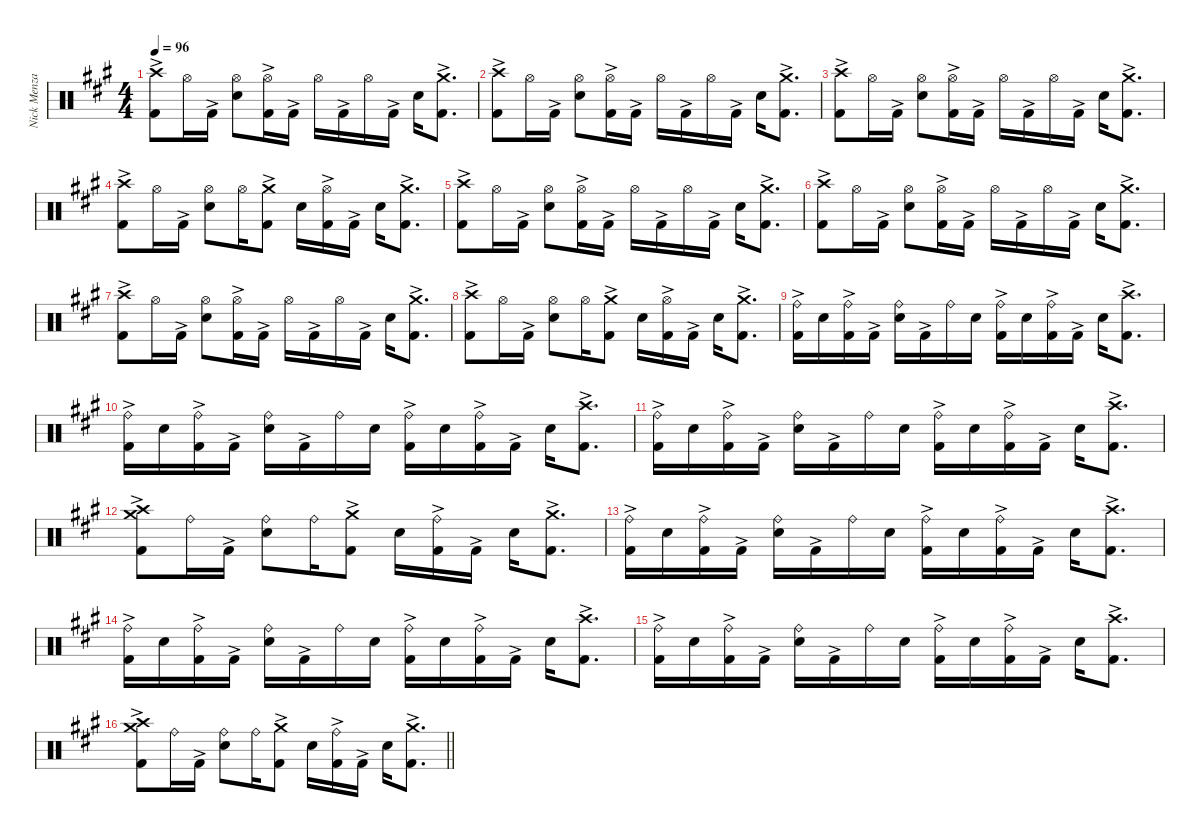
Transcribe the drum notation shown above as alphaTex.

\defaultSystemsLayout 4
\hideDynamics
\bracketExtendMode nobrackets
\firstSystemTrackNameMode fullname
\otherSystemsTrackNameOrientation horizontal
\track ("Nick Menza" "drm.") {instrument percussion}
\staff {score}
\articulation defaults
\ts (4 4)
\tempo 96
\clef neutral
\ks f#minor
("Crash high (hit)"{acc forcenatural} "Kick (hit) 2"{ac acc forcenatural}).8{dy f beam Down} "Hi-Hat (open)"{acc forcenatural}.16{beam Down} "Kick (hit) 2"{ac acc forcenatural}.16{dy ff beam Down} ("Hi-Hat (open)"{acc forcenatural} "Snare (hit) 2"{acc forcenatural}).8{dy f beam Down} ("Hi-Hat (open)"{acc forcenatural} "Kick (hit) 2"{ac acc forcenatural}).16{beam Down} "Kick (hit) 2"{ac acc forcenatural}.16{dy ff beam Down} "Hi-Hat (open)"{acc forcenatural}.16{dy f beam Down} "Kick (hit) 2"{ac acc forcenatural}.16{dy ff beam Down} "Hi-Hat (open)"{acc forcenatural}.16{dy f beam Down} "Kick (hit) 2"{ac acc forcenatural}.16{dy ff beam Down} "Snare (hit) 2"{acc forcenatural}.16{dy f beam Down} ("Crash medium (hit)"{acc forcenatural} "Kick (hit) 2"{ac acc forcenatural}).8{d beam Down} |
("Crash high (hit)"{acc forcenatural} "Kick (hit) 2"{ac acc forcenatural}).8{beam Down} "Hi-Hat (open)"{acc forcenatural}.16{beam Down} "Kick (hit) 2"{ac acc forcenatural}.16{dy ff beam Down} ("Hi-Hat (open)"{acc forcenatural} "Snare (hit) 2"{acc forcenatural}).8{dy f beam Down} ("Hi-Hat (open)"{acc forcenatural} "Kick (hit) 2"{ac acc forcenatural}).16{beam Down} "Kick (hit) 2"{ac acc forcenatural}.16{dy ff beam Down} "Hi-Hat (open)"{acc forcenatural}.16{dy f beam Down} "Kick (hit) 2"{ac acc forcenatural}.16{dy ff beam Down} "Hi-Hat (open)"{acc forcenatural}.16{dy f beam Down} "Kick (hit) 2"{ac acc forcenatural}.16{dy ff beam Down} "Snare (hit) 2"{acc forcenatural}.16{dy f beam Down} ("Crash medium (hit)"{acc forcenatural} "Kick (hit) 2"{ac acc forcenatural}).8{d beam Down} |
("Crash high (hit)"{acc forcenatural} "Kick (hit) 2"{ac acc forcenatural}).8{beam Down} "Hi-Hat (open)"{acc forcenatural}.16{beam Down} "Kick (hit) 2"{ac acc forcenatural}.16{dy ff beam Down} ("Hi-Hat (open)"{acc forcenatural} "Snare (hit) 2"{acc forcenatural}).8{dy f beam Down} ("Hi-Hat (open)"{acc forcenatural} "Kick (hit) 2"{ac acc forcenatural}).16{beam Down} "Kick (hit) 2"{ac acc forcenatural}.16{dy ff beam Down} "Hi-Hat (open)"{acc forcenatural}.16{dy f beam Down} "Kick (hit) 2"{ac acc forcenatural}.16{dy ff beam Down} "Hi-Hat (open)"{acc forcenatural}.16{dy f beam Down} "Kick (hit) 2"{ac acc forcenatural}.16{dy ff beam Down} "Snare (hit) 2"{acc forcenatural}.16{dy f beam Down} ("Crash medium (hit)"{acc forcenatural} "Kick (hit) 2"{ac acc forcenatural}).8{d beam Down} |
("Crash high (hit)"{acc forcenatural} "Kick (hit) 2"{ac acc forcenatural}).8{beam Down} "Hi-Hat (open)"{acc forcenatural}.16{beam Down} "Kick (hit) 2"{ac acc forcenatural}.16{dy ff beam Down} ("Hi-Hat (open)"{acc forcenatural} "Snare (hit) 2"{acc forcenatural}).8{dy f beam Down} "Hi-Hat (open)"{acc forcenatural}.16{beam Down} ("Crash medium (hit)"{acc forcenatural} "Kick (hit) 2"{ac acc forcenatural}).8{beam Down} "Snare (hit) 2"{acc forcenatural}.16{beam Down} ("Hi-Hat (open)"{acc forcenatural} "Kick (hit) 2"{ac acc forcenatural}).16{beam Down} "Kick (hit) 2"{ac acc forcenatural}.16{dy ff beam Down} "Snare (hit) 2"{acc forcenatural}.16{dy f beam Down} ("Crash medium (hit)"{acc forcenatural} "Kick (hit) 2"{ac acc forcenatural}).8{d beam Down} |
("Crash high (hit)"{acc forcenatural} "Kick (hit) 2"{ac acc forcenatural}).8{beam Down} "Hi-Hat (open)"{acc forcenatural}.16{beam Down} "Kick (hit) 2"{ac acc forcenatural}.16{dy ff beam Down} ("Hi-Hat (open)"{acc forcenatural} "Snare (hit) 2"{acc forcenatural}).8{dy f beam Down} ("Hi-Hat (open)"{acc forcenatural} "Kick (hit) 2"{ac acc forcenatural}).16{beam Down} "Kick (hit) 2"{ac acc forcenatural}.16{dy ff beam Down} "Hi-Hat (open)"{acc forcenatural}.16{dy f beam Down} "Kick (hit) 2"{ac acc forcenatural}.16{dy ff beam Down} "Hi-Hat (open)"{acc forcenatural}.16{dy f beam Down} "Kick (hit) 2"{ac acc forcenatural}.16{dy ff beam Down} "Snare (hit) 2"{acc forcenatural}.16{dy f beam Down} ("Crash medium (hit)"{acc forcenatural} "Kick (hit) 2"{ac acc forcenatural}).8{d beam Down} |
("Crash high (hit)"{acc forcenatural} "Kick (hit) 2"{ac acc forcenatural}).8{beam Down} "Hi-Hat (open)"{acc forcenatural}.16{beam Down} "Kick (hit) 2"{ac acc forcenatural}.16{dy ff beam Down} ("Hi-Hat (open)"{acc forcenatural} "Snare (hit) 2"{acc forcenatural}).8{dy f beam Down} ("Hi-Hat (open)"{acc forcenatural} "Kick (hit) 2"{ac acc forcenatural}).16{beam Down} "Kick (hit) 2"{ac acc forcenatural}.16{dy ff beam Down} "Hi-Hat (open)"{acc forcenatural}.16{dy f beam Down} "Kick (hit) 2"{ac acc forcenatural}.16{dy ff beam Down} "Hi-Hat (open)"{acc forcenatural}.16{dy f beam Down} "Kick (hit) 2"{ac acc forcenatural}.16{dy ff beam Down} "Snare (hit) 2"{acc forcenatural}.16{dy f beam Down} ("Crash medium (hit)"{acc forcenatural} "Kick (hit) 2"{ac acc forcenatural}).8{d beam Down} |
("Crash high (hit)"{acc forcenatural} "Kick (hit) 2"{ac acc forcenatural}).8{beam Down} "Hi-Hat (open)"{acc forcenatural}.16{beam Down} "Kick (hit) 2"{ac acc forcenatural}.16{dy ff beam Down} ("Hi-Hat (open)"{acc forcenatural} "Snare (hit) 2"{acc forcenatural}).8{dy f beam Down} ("Hi-Hat (open)"{acc forcenatural} "Kick (hit) 2"{ac acc forcenatural}).16{beam Down} "Kick (hit) 2"{ac acc forcenatural}.16{dy ff beam Down} "Hi-Hat (open)"{acc forcenatural}.16{dy f beam Down} "Kick (hit) 2"{ac acc forcenatural}.16{dy ff beam Down} "Hi-Hat (open)"{acc forcenatural}.16{dy f beam Down} "Kick (hit) 2"{ac acc forcenatural}.16{dy ff beam Down} "Snare (hit) 2"{acc forcenatural}.16{dy f beam Down} ("Crash medium (hit)"{acc forcenatural} "Kick (hit) 2"{ac acc forcenatural}).8{d beam Down} |
("Crash high (hit)"{acc forcenatural} "Kick (hit) 2"{ac acc forcenatural}).8{beam Down} "Hi-Hat (open)"{acc forcenatural}.16{beam Down} "Kick (hit) 2"{ac acc forcenatural}.16{dy ff beam Down} ("Hi-Hat (open)"{acc forcenatural} "Snare (hit) 2"{acc forcenatural}).8{dy f beam Down} "Hi-Hat (open)"{acc forcenatural}.16{beam Down} ("Crash medium (hit)"{acc forcenatural} "Kick (hit) 2"{ac acc forcenatural}).8{beam Down} "Snare (hit) 2"{acc forcenatural}.16{beam Down} ("Hi-Hat (open)"{acc forcenatural} "Kick (hit) 2"{ac acc forcenatural}).16{beam Down} "Kick (hit) 2"{ac acc forcenatural}.16{dy ff beam Down} "Snare (hit) 2"{acc forcenatural}.16{dy f beam Down} ("Crash medium (hit)"{acc forcenatural} "Kick (hit) 2"{ac acc forcenatural}).8{d beam Down} |
("Ride (bell)"{acc forcenatural} "Kick (hit) 2"{ac acc forcenatural}).16{beam Down} "Snare (hit) 2"{acc forcenatural}.16{beam Down} ("Ride (bell)"{acc forcenatural} "Kick (hit) 2"{ac acc forcenatural}).16{beam Down} "Kick (hit) 2"{ac acc forcenatural}.16{dy ff beam Down} ("Ride (bell)"{acc forcenatural} "Snare (hit) 2"{acc forcenatural}).16{dy f beam Down} "Kick (hit) 2"{ac acc forcenatural}.16{dy ff beam Down} "Ride (bell)"{acc forcenatural}.16{dy f beam Down} "Snare (hit) 2"{acc forcenatural}.16{beam Down} ("Ride (bell)"{acc forcenatural} "Kick (hit) 2"{ac acc forcenatural}).16{beam Down} "Snare (hit) 2"{acc forcenatural}.16{beam Down} ("Ride (bell)"{acc forcenatural} "Kick (hit) 2"{ac acc forcenatural}).16{beam Down} "Kick (hit) 2"{ac acc forcenatural}.16{dy ff beam Down} "Snare (hit) 2"{acc forcenatural}.16{dy f beam Down} ("Crash high (hit)"{acc forcenatural} "Kick (hit) 2"{ac acc forcenatural}).8{d beam Down} |
("Ride (bell)"{acc forcenatural} "Kick (hit) 2"{ac acc forcenatural}).16{beam Down} "Snare (hit) 2"{acc forcenatural}.16{beam Down} ("Ride (bell)"{acc forcenatural} "Kick (hit) 2"{ac acc forcenatural}).16{beam Down} "Kick (hit) 2"{ac acc forcenatural}.16{dy ff beam Down} ("Ride (bell)"{acc forcenatural} "Snare (hit) 2"{acc forcenatural}).16{dy f beam Down} "Kick (hit) 2"{ac acc forcenatural}.16{dy ff beam Down} "Ride (bell)"{acc forcenatural}.16{dy f beam Down} "Snare (hit) 2"{acc forcenatural}.16{beam Down} ("Ride (bell)"{acc forcenatural} "Kick (hit) 2"{ac acc forcenatural}).16{beam Down} "Snare (hit) 2"{acc forcenatural}.16{beam Down} ("Ride (bell)"{acc forcenatural} "Kick (hit) 2"{ac acc forcenatural}).16{beam Down} "Kick (hit) 2"{ac acc forcenatural}.16{dy ff beam Down} "Snare (hit) 2"{acc forcenatural}.16{dy f beam Down} ("Crash high (hit)"{acc forcenatural} "Kick (hit) 2"{ac acc forcenatural}).8{d beam Down} |
("Ride (bell)"{acc forcenatural} "Kick (hit) 2"{ac acc forcenatural}).16{beam Down} "Snare (hit) 2"{acc forcenatural}.16{beam Down} ("Ride (bell)"{acc forcenatural} "Kick (hit) 2"{ac acc forcenatural}).16{beam Down} "Kick (hit) 2"{ac acc forcenatural}.16{dy ff beam Down} ("Ride (bell)"{acc forcenatural} "Snare (hit) 2"{acc forcenatural}).16{dy f beam Down} "Kick (hit) 2"{ac acc forcenatural}.16{dy ff beam Down} "Ride (bell)"{acc forcenatural}.16{dy f beam Down} "Snare (hit) 2"{acc forcenatural}.16{beam Down} ("Ride (bell)"{acc forcenatural} "Kick (hit) 2"{ac acc forcenatural}).16{beam Down} "Snare (hit) 2"{acc forcenatural}.16{beam Down} ("Ride (bell)"{acc forcenatural} "Kick (hit) 2"{ac acc forcenatural}).16{beam Down} "Kick (hit) 2"{ac acc forcenatural}.16{dy ff beam Down} "Snare (hit) 2"{acc forcenatural}.16{dy f beam Down} ("Crash high (hit)"{acc forcenatural} "Kick (hit) 2"{ac acc forcenatural}).8{d beam Down} |
("Crash high (hit)"{acc forcenatural} "Crash medium (hit)"{acc forcenatural} "Kick (hit) 2"{ac acc forcenatural}).8{beam Down} "Ride (bell)"{acc forcenatural}.16{beam Down} "Kick (hit) 2"{ac acc forcenatural}.16{dy ff beam Down} ("Ride (bell)"{acc forcenatural} "Snare (hit) 2"{acc forcenatural}).8{dy f beam Down} "Ride (bell)"{acc forcenatural}.16{beam Down} ("Crash medium (hit)"{acc forcenatural} "Kick (hit) 2"{ac acc forcenatural}).8{beam Down} "Snare (hit) 2"{acc forcenatural}.16{beam Down} ("Ride (bell)"{acc forcenatural} "Kick (hit) 2"{ac acc forcenatural}).16{beam Down} "Kick (hit) 2"{ac acc forcenatural}.16{dy ff beam Down} "Snare (hit) 2"{acc forcenatural}.16{dy f beam Down} ("Crash medium (hit)"{acc forcenatural} "Kick (hit) 2"{ac acc forcenatural}).8{d beam Down} |
("Ride (bell)"{acc forcenatural} "Kick (hit) 2"{ac acc forcenatural}).16{beam Down} "Snare (hit) 2"{acc forcenatural}.16{beam Down} ("Ride (bell)"{acc forcenatural} "Kick (hit) 2"{ac acc forcenatural}).16{beam Down} "Kick (hit) 2"{ac acc forcenatural}.16{dy ff beam Down} ("Ride (bell)"{acc forcenatural} "Snare (hit) 2"{acc forcenatural}).16{dy f beam Down} "Kick (hit) 2"{ac acc forcenatural}.16{dy ff beam Down} "Ride (bell)"{acc forcenatural}.16{dy f beam Down} "Snare (hit) 2"{acc forcenatural}.16{beam Down} ("Ride (bell)"{acc forcenatural} "Kick (hit) 2"{ac acc forcenatural}).16{beam Down} "Snare (hit) 2"{acc forcenatural}.16{beam Down} ("Ride (bell)"{acc forcenatural} "Kick (hit) 2"{ac acc forcenatural}).16{beam Down} "Kick (hit) 2"{ac acc forcenatural}.16{dy ff beam Down} "Snare (hit) 2"{acc forcenatural}.16{dy f beam Down} ("Crash high (hit)"{acc forcenatural} "Kick (hit) 2"{ac acc forcenatural}).8{d beam Down} |
("Ride (bell)"{acc forcenatural} "Kick (hit) 2"{ac acc forcenatural}).16{beam Down} "Snare (hit) 2"{acc forcenatural}.16{beam Down} ("Ride (bell)"{acc forcenatural} "Kick (hit) 2"{ac acc forcenatural}).16{beam Down} "Kick (hit) 2"{ac acc forcenatural}.16{dy ff beam Down} ("Ride (bell)"{acc forcenatural} "Snare (hit) 2"{acc forcenatural}).16{dy f beam Down} "Kick (hit) 2"{ac acc forcenatural}.16{dy ff beam Down} "Ride (bell)"{acc forcenatural}.16{dy f beam Down} "Snare (hit) 2"{acc forcenatural}.16{beam Down} ("Ride (bell)"{acc forcenatural} "Kick (hit) 2"{ac acc forcenatural}).16{beam Down} "Snare (hit) 2"{acc forcenatural}.16{beam Down} ("Ride (bell)"{acc forcenatural} "Kick (hit) 2"{ac acc forcenatural}).16{beam Down} "Kick (hit) 2"{ac acc forcenatural}.16{dy ff beam Down} "Snare (hit) 2"{acc forcenatural}.16{dy f beam Down} ("Crash high (hit)"{acc forcenatural} "Kick (hit) 2"{ac acc forcenatural}).8{d beam Down} |
("Ride (bell)"{acc forcenatural} "Kick (hit) 2"{ac acc forcenatural}).16{beam Down} "Snare (hit) 2"{acc forcenatural}.16{beam Down} ("Ride (bell)"{acc forcenatural} "Kick (hit) 2"{ac acc forcenatural}).16{beam Down} "Kick (hit) 2"{ac acc forcenatural}.16{dy ff beam Down} ("Ride (bell)"{acc forcenatural} "Snare (hit) 2"{acc forcenatural}).16{dy f beam Down} "Kick (hit) 2"{ac acc forcenatural}.16{dy ff beam Down} "Ride (bell)"{acc forcenatural}.16{dy f beam Down} "Snare (hit) 2"{acc forcenatural}.16{beam Down} ("Ride (bell)"{acc forcenatural} "Kick (hit) 2"{ac acc forcenatural}).16{beam Down} "Snare (hit) 2"{acc forcenatural}.16{beam Down} ("Ride (bell)"{acc forcenatural} "Kick (hit) 2"{ac acc forcenatural}).16{beam Down} "Kick (hit) 2"{ac acc forcenatural}.16{dy ff beam Down} "Snare (hit) 2"{acc forcenatural}.16{dy f beam Down} ("Crash high (hit)"{acc forcenatural} "Kick (hit) 2"{ac acc forcenatural}).8{d beam Down} |
\barLineRight lightlight
("Crash high (hit)"{acc forcenatural} "Crash medium (hit)"{acc forcenatural} "Kick (hit) 2"{ac acc forcenatural}).8{beam Down} "Ride (bell)"{acc forcenatural}.16{beam Down} "Kick (hit) 2"{ac acc forcenatural}.16{dy ff beam Down} ("Ride (bell)"{acc forcenatural} "Snare (hit) 2"{acc forcenatural}).8{dy f beam Down} "Ride (bell)"{acc forcenatural}.16{beam Down} ("Crash medium (hit)"{acc forcenatural} "Kick (hit) 2"{ac acc forcenatural}).8{beam Down} "Snare (hit) 2"{acc forcenatural}.16{beam Down} ("Ride (bell)"{acc forcenatural} "Kick (hit) 2"{ac acc forcenatural}).16{beam Down} "Kick (hit) 2"{ac acc forcenatural}.16{dy ff beam Down} "Snare (hit) 2"{acc forcenatural}.16{dy f beam Down} ("Crash medium (hit)"{acc forcenatural} "Kick (hit) 2"{ac acc forcenatural}).8{d beam Down}
